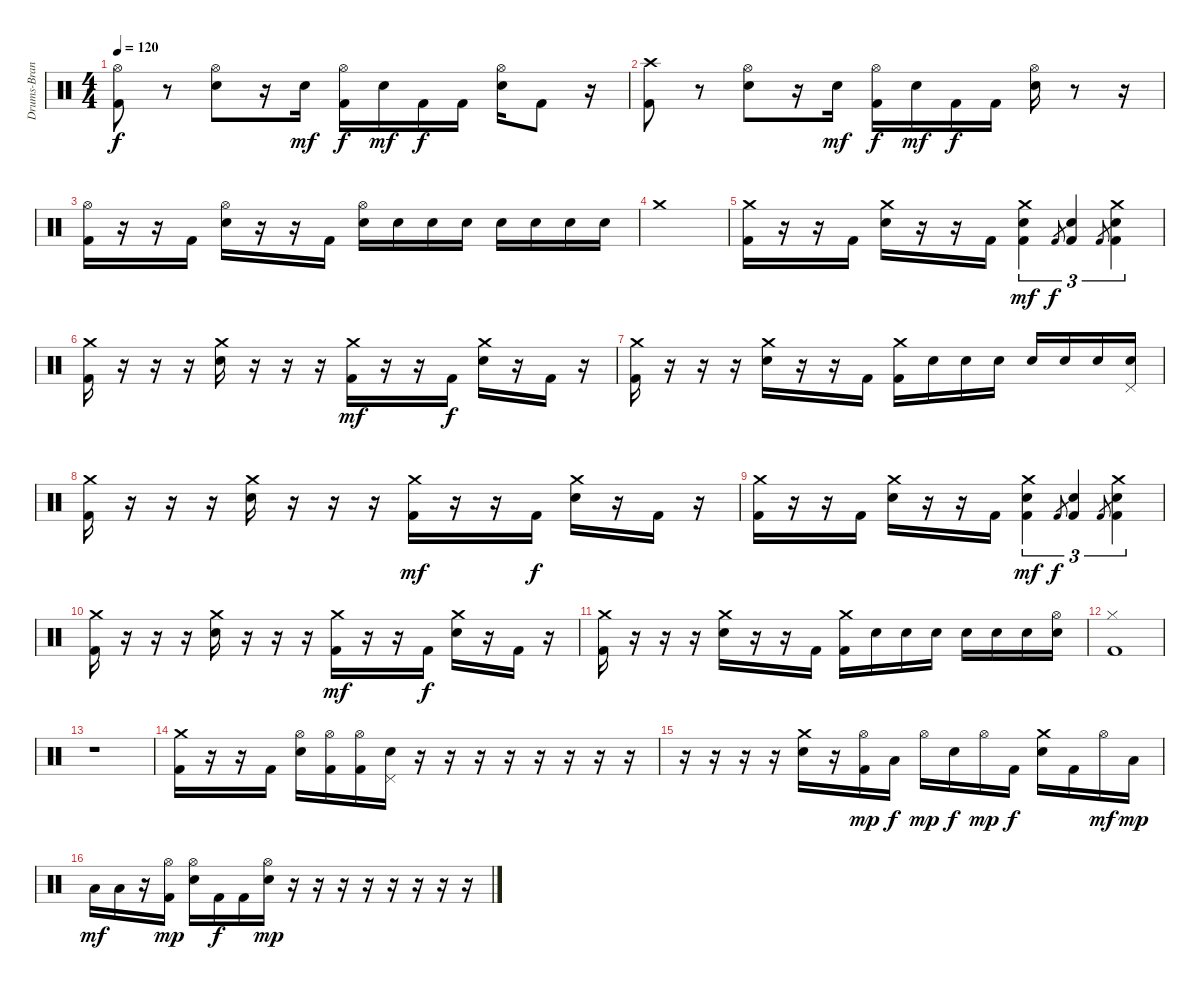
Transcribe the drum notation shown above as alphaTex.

\track ("Drums-Branden Steineckert" "Drums-Bran") {instrument percussion}
\staff {score}
\articulation defaults
\ts (4 4)
\tempo 120
\clef neutral
\ks c
("Hi-Hat (open)" "Kick (hit) 2").8{dy f} r.8 ("Hi-Hat (open)" "Electric Snare (hit)").8 r.16 "Electric Snare (hit)".16{dy mf} ("Hi-Hat (open)" "Kick (hit) 2").16{dy f} "Electric Snare (hit)".16{dy mf} "Kick (hit) 2".16{dy f} "Kick (hit) 2".16 ("Hi-Hat (open)" "Electric Snare (hit)").16 "Kick (hit) 2".8 r.16 |
("Crash high (hit)" "Kick (hit) 2").8 r.8 ("Hi-Hat (open)" "Electric Snare (hit)").8 r.16 "Electric Snare (hit)".16{dy mf} ("Hi-Hat (open)" "Kick (hit) 2").16{dy f} "Electric Snare (hit)".16{dy mf} "Kick (hit) 2".16{dy f} "Kick (hit) 2".16 ("Hi-Hat (open)" "Electric Snare (hit)").16 r.8 r.16 |
("Hi-Hat (open)" "Kick (hit) 2").16 r.16 r.16 "Kick (hit) 2".16 ("Hi-Hat (open)" "Electric Snare (hit)").16 r.16 r.16 "Kick (hit) 2".16 ("Hi-Hat (open)" "Electric Snare (hit)").16 "Electric Snare (hit)".16 "Electric Snare (hit)".16 "Electric Snare (hit)".16 "Electric Snare (hit)".16 "Electric Snare (hit)".16 "Electric Snare (hit)".16 "Electric Snare (hit)".16 |
"Crash medium (hit)".1 |
("Crash medium (hit)" "Kick (hit) 2").16 r.16 r.16 "Kick (hit) 2".16 ("Crash medium (hit)" "Electric Snare (hit)").16 r.16 r.16 "Kick (hit) 2".16 ("Crash medium (hit)" "Kick (hit) 2" "Electric Snare (hit)").4{tu (3 2) dy mf} "Kick (hit) 2".8{gr dy f} ("Kick (hit) 2" "Electric Snare (hit)").4{tu (3 2)} "Kick (hit) 2".8{gr} ("Crash medium (hit)" "Kick (hit) 2" "Electric Snare (hit)").4{tu (3 2)} |
("Crash medium (hit)" "Kick (hit) 2").16 r.16 r.16 r.16 ("Crash medium (hit)" "Electric Snare (hit)").16 r.16 r.16 r.16 ("Crash medium (hit)" "Kick (hit) 2").16{dy mf} r.16 r.16 "Kick (hit) 2".16{dy f} ("Crash medium (hit)" "Electric Snare (hit)").16 r.16 "Kick (hit) 2".16 r.16 |
("Crash medium (hit)" "Kick (hit) 2").16 r.16 r.16 r.16 ("Crash medium (hit)" "Electric Snare (hit)").16 r.16 r.16 "Kick (hit) 2".16 ("Crash medium (hit)" "Kick (hit) 2").16 "Electric Snare (hit)".16 "Electric Snare (hit)".16 "Electric Snare (hit)".16 "Electric Snare (hit)".16 "Electric Snare (hit)".16 "Electric Snare (hit)".16 ("Pedal Hi-Hat (hit)" "Electric Snare (hit)").16 |
("Crash medium (hit)" "Kick (hit) 2").16 r.16 r.16 r.16 ("Crash medium (hit)" "Electric Snare (hit)").16 r.16 r.16 r.16 ("Crash medium (hit)" "Kick (hit) 2").16{dy mf} r.16 r.16 "Kick (hit) 2".16{dy f} ("Crash medium (hit)" "Electric Snare (hit)").16 r.16 "Kick (hit) 2".16 r.16 |
("Crash medium (hit)" "Kick (hit) 2").16 r.16 r.16 "Kick (hit) 2".16 ("Crash medium (hit)" "Electric Snare (hit)").16 r.16 r.16 "Kick (hit) 2".16 ("Crash medium (hit)" "Kick (hit) 2" "Electric Snare (hit)").4{tu (3 2) dy mf} "Kick (hit) 2".8{gr dy f} ("Kick (hit) 2" "Electric Snare (hit)").4{tu (3 2)} "Kick (hit) 2".8{gr} ("Crash medium (hit)" "Kick (hit) 2" "Electric Snare (hit)").4{tu (3 2)} |
("Crash medium (hit)" "Kick (hit) 2").16 r.16 r.16 r.16 ("Crash medium (hit)" "Electric Snare (hit)").16 r.16 r.16 r.16 ("Crash medium (hit)" "Kick (hit) 2").16{dy mf} r.16 r.16 "Kick (hit) 2".16{dy f} ("Crash medium (hit)" "Electric Snare (hit)").16 r.16 "Kick (hit) 2".16 r.16 |
("Crash medium (hit)" "Kick (hit) 2").16 r.16 r.16 r.16 ("Crash medium (hit)" "Electric Snare (hit)").16 r.16 r.16 "Kick (hit) 2".16 ("Crash medium (hit)" "Kick (hit) 2").16 "Electric Snare (hit)".16 "Electric Snare (hit)".16 "Electric Snare (hit)".16 "Electric Snare (hit)".16 "Electric Snare (hit)".16 "Electric Snare (hit)".16 ("Hi-Hat (open)" "Electric Snare (hit)").16 |
("Hi-Hat (closed)" "Kick (hit) 2").1 |
r.1 |
("Crash medium (hit)" "Kick (hit) 2").16 r.16 r.16 "Kick (hit) 2".16 ("Hi-Hat (open)" "Electric Snare (hit)").16 ("Hi-Hat (open)" "Kick (hit) 2").16 ("Hi-Hat (open)" "Kick (hit) 2").16 ("Pedal Hi-Hat (hit)" "Electric Snare (hit)").16 r.16 r.16 r.16 r.16 r.16 r.16 r.16 r.16 |
r.16 r.16 r.16 r.16 ("Crash medium (hit)" "Electric Snare (hit)").16 r.16 ("Hi-Hat (open)" "Kick (hit) 2").16{dy mp} "Low Tom (hit)".16{dy f} "Hi-Hat (open)".16{dy mp} "Electric Snare (hit)".16{dy f} "Hi-Hat (open)".16{dy mp} "Kick (hit) 2".16{dy f} ("Crash medium (hit)" "Electric Snare (hit)").16 "Kick (hit) 2".16 "Hi-Hat (open)".16{dy mf} "Low Floor Tom (hit)".16{dy mp} |
"Low Floor Tom (hit)".16{dy mf} "Low Floor Tom (hit)".16 r.16 ("Hi-Hat (open)" "Kick (hit) 2").16{dy mp} ("Hi-Hat (open)" "Electric Snare (hit)").16 "Kick (hit) 2".16{dy f} "Kick (hit) 2".16 ("Hi-Hat (open)" "Electric Snare (hit)").16{dy mp} r.16 r.16 r.16 r.16 r.16 r.16 r.16 r.16
